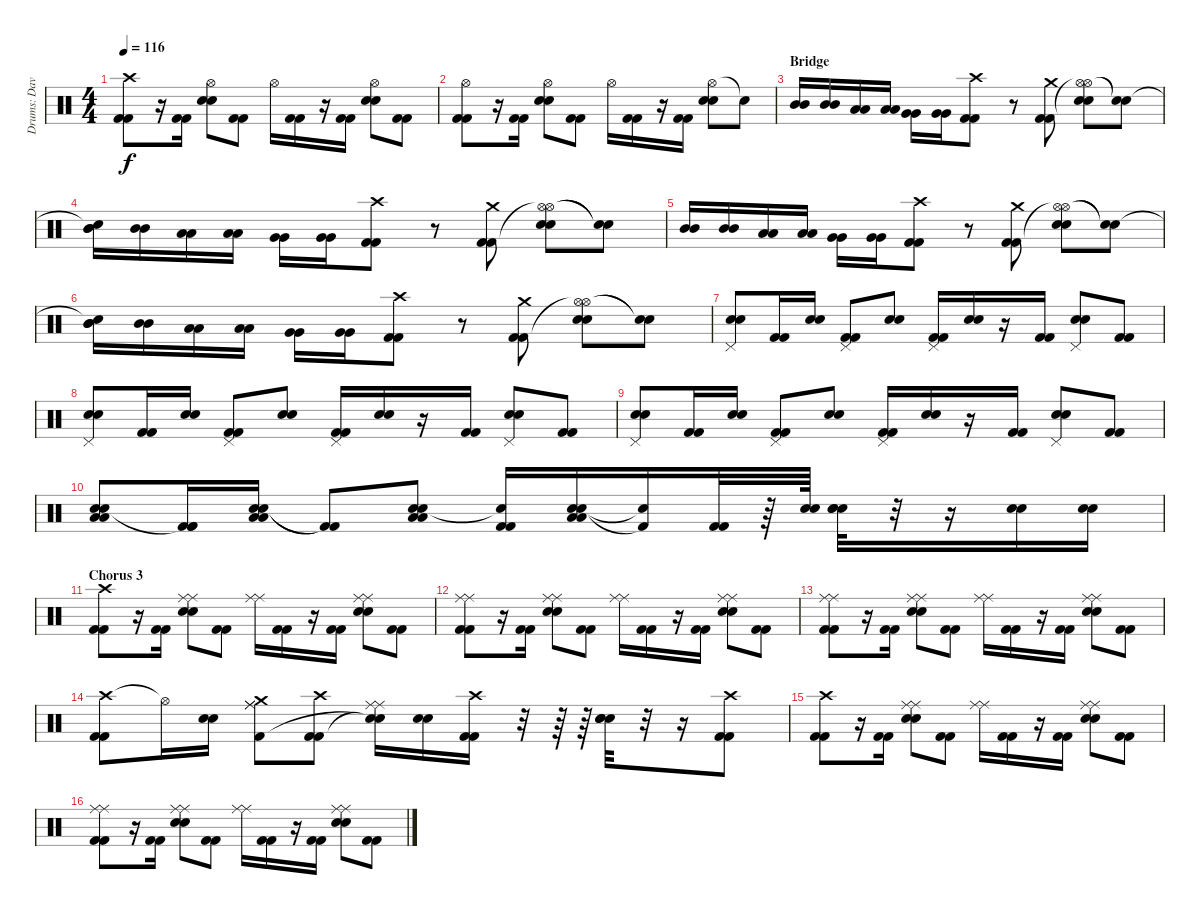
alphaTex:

\track ("Drums: Dave Krusen" "Drums: Dav") {instrument percussion}
\staff {score}
\articulation defaults
\ts (4 4)
\tempo 116
\clef neutral
\ks c
("Crash high (hit)" "Kick (hit) 2" "Kick (hit) 2").8{dy f} r.16 ("Kick (hit) 2" "Kick (hit) 2").16 ("Hi-Hat (open)" "Electric Snare (hit)" "Electric Snare (hit)").8 ("Kick (hit) 2" "Kick (hit) 2").8 "Hi-Hat (open)".16 ("Kick (hit) 2" "Kick (hit) 2").16 r.16 ("Kick (hit) 2" "Kick (hit) 2").16 ("Hi-Hat (open)" "Electric Snare (hit)" "Electric Snare (hit)").8 ("Kick (hit) 2" "Kick (hit) 2").8 |
("Hi-Hat (open)" "Kick (hit) 2" "Kick (hit) 2").8 r.16 ("Kick (hit) 2" "Kick (hit) 2").16 ("Hi-Hat (open)" "Electric Snare (hit)" "Electric Snare (hit)").8 ("Kick (hit) 2" "Kick (hit) 2").8 "Hi-Hat (open)".16 ("Kick (hit) 2" "Kick (hit) 2").16 r.16 ("Kick (hit) 2" "Kick (hit) 2").16 ("Hi-Hat (open)" "Electric Snare (hit)" "Electric Snare (hit)").8 "Snare (hit)"{t}.8 |
\section ("" "Bridge")
("Mid Tom (hit)" "Mid Tom (hit)").16 ("Mid Tom (hit)" "Mid Tom (hit)").16 ("Low Tom (hit)" "Low Tom (hit)").16 ("Low Tom (hit)" "Low Tom (hit)").16 ("Very Low Tom (hit)" "Very Low Tom (hit)").16 ("Very Low Tom (hit)" "Very Low Tom (hit)").16 ("Crash high (hit)" "Kick (hit) 2" "Kick (hit) 2").8 r.8 ("Crash medium (hit)" "Kick (hit) 2" "Kick (hit) 2").8 ("Hi-Hat (open)" "Hi-Hat (open)"{t} "Electric Snare (hit)" "Electric Snare (hit)").8 ("Snare (hit)"{t} "Snare (hit)"{t}).8 |
("Snare (hit)"{t} "Mid Tom (hit)" "Mid Tom (hit)").16 ("Mid Tom (hit)" "Mid Tom (hit)").16 ("Low Tom (hit)" "Low Tom (hit)").16 ("Low Tom (hit)" "Low Tom (hit)").16 ("Very Low Tom (hit)" "Very Low Tom (hit)").16 ("Very Low Tom (hit)" "Very Low Tom (hit)").16 ("Crash high (hit)" "Kick (hit) 2" "Kick (hit) 2").8 r.8 ("Crash medium (hit)" "Kick (hit) 2" "Kick (hit) 2").8 ("Hi-Hat (open)" "Hi-Hat (open)"{t} "Electric Snare (hit)" "Electric Snare (hit)").8 ("Snare (hit)"{t} "Snare (hit)"{t}).8 |
("Mid Tom (hit)" "Mid Tom (hit)").16 ("Mid Tom (hit)" "Mid Tom (hit)").16 ("Low Tom (hit)" "Low Tom (hit)").16 ("Low Tom (hit)" "Low Tom (hit)").16 ("Very Low Tom (hit)" "Very Low Tom (hit)").16 ("Very Low Tom (hit)" "Very Low Tom (hit)").16 ("Crash high (hit)" "Kick (hit) 2" "Kick (hit) 2").8 r.8 ("Crash medium (hit)" "Kick (hit) 2" "Kick (hit) 2").8 ("Hi-Hat (open)" "Hi-Hat (open)"{t} "Electric Snare (hit)" "Electric Snare (hit)").8 ("Snare (hit)"{t} "Snare (hit)"{t}).8 |
("Snare (hit)"{t} "Mid Tom (hit)" "Mid Tom (hit)").16 ("Mid Tom (hit)" "Mid Tom (hit)").16 ("Low Tom (hit)" "Low Tom (hit)").16 ("Low Tom (hit)" "Low Tom (hit)").16 ("Very Low Tom (hit)" "Very Low Tom (hit)").16 ("Very Low Tom (hit)" "Very Low Tom (hit)").16 ("Crash high (hit)" "Kick (hit) 2" "Kick (hit) 2").8 r.8 ("Crash medium (hit)" "Kick (hit) 2" "Kick (hit) 2").8 ("Hi-Hat (open)" "Hi-Hat (open)"{t} "Electric Snare (hit)" "Electric Snare (hit)").8 ("Snare (hit)"{t} "Snare (hit)"{t}).8 |
("Pedal Hi-Hat (hit)" "Electric Snare (hit)" "Electric Snare (hit)").8 ("Kick (hit) 2" "Kick (hit) 2").16 ("Electric Snare (hit)" "Electric Snare (hit)").16 ("Pedal Hi-Hat (hit)" "Kick (hit) 2" "Kick (hit) 2").8 ("Electric Snare (hit)" "Electric Snare (hit)").8 ("Pedal Hi-Hat (hit)" "Kick (hit) 2" "Kick (hit) 2").16 ("Electric Snare (hit)" "Electric Snare (hit)").16 r.16 ("Kick (hit) 2" "Kick (hit) 2").16 ("Pedal Hi-Hat (hit)" "Electric Snare (hit)" "Electric Snare (hit)").8 ("Kick (hit) 2" "Kick (hit) 2").8 |
("Pedal Hi-Hat (hit)" "Electric Snare (hit)" "Electric Snare (hit)").8 ("Kick (hit) 2" "Kick (hit) 2").16 ("Electric Snare (hit)" "Electric Snare (hit)").16 ("Pedal Hi-Hat (hit)" "Kick (hit) 2" "Kick (hit) 2").8 ("Electric Snare (hit)" "Electric Snare (hit)").8 ("Pedal Hi-Hat (hit)" "Kick (hit) 2" "Kick (hit) 2").16 ("Electric Snare (hit)" "Electric Snare (hit)").16 r.16 ("Kick (hit) 2" "Kick (hit) 2").16 ("Pedal Hi-Hat (hit)" "Electric Snare (hit)" "Electric Snare (hit)").8 ("Kick (hit) 2" "Kick (hit) 2").8 |
("Pedal Hi-Hat (hit)" "Electric Snare (hit)" "Electric Snare (hit)").8 ("Kick (hit) 2" "Kick (hit) 2").16 ("Electric Snare (hit)" "Electric Snare (hit)").16 ("Pedal Hi-Hat (hit)" "Kick (hit) 2" "Kick (hit) 2").8 ("Electric Snare (hit)" "Electric Snare (hit)").8 ("Pedal Hi-Hat (hit)" "Kick (hit) 2" "Kick (hit) 2").16 ("Electric Snare (hit)" "Electric Snare (hit)").16 r.16 ("Kick (hit) 2" "Kick (hit) 2").16 ("Pedal Hi-Hat (hit)" "Electric Snare (hit)" "Electric Snare (hit)").8 ("Kick (hit) 2" "Kick (hit) 2").8 |
("Electric Snare (hit)" "Electric Snare (hit)" "Low Tom (hit)" "Low Tom (hit)").8 ("Kick (hit) 2"{t} "Kick (hit) 2" "Kick (hit) 2").16 ("Electric Snare (hit)" "Electric Snare (hit)" "Low Tom (hit)" "Low Tom (hit)").16 ("Kick (hit) 2"{t} "Kick (hit) 2"{t}).8 ("Electric Snare (hit)" "Electric Snare (hit)" "Low Tom (hit)" "Low Tom (hit)").8 ("Electric Snare (hit)"{t} "Kick (hit) 2" "Kick (hit) 2").16 ("Electric Snare (hit)" "Electric Snare (hit)" "Low Tom (hit)" "Low Tom (hit)").16 ("Kick (hit) 2"{t} "Snare (hit)"{t}).16 ("Kick (hit) 2" "Kick (hit) 2").32 r.64 ("Electric Snare (hit)" "Electric Snare (hit)").64 ("Electric Snare (hit)" "Electric Snare (hit)" "Electric Snare (hit)").32 r.32 r.16 ("Electric Snare (hit)" "Electric Snare (hit)").16 ("Electric Snare (hit)" "Electric Snare (hit)").16 |
\section ("" "Chorus 3")
("Crash high (hit)" "Kick (hit) 2" "Kick (hit) 2").8 r.16 ("Kick (hit) 2" "Kick (hit) 2").16 ("Ride (middle)" "Ride (middle)" "Electric Snare (hit)" "Electric Snare (hit)").8 ("Kick (hit) 2" "Kick (hit) 2").8 ("Ride (middle)" "Ride (middle)").16 ("Kick (hit) 2" "Kick (hit) 2").16 r.16 ("Kick (hit) 2" "Kick (hit) 2").16 ("Ride (middle)" "Ride (middle)" "Electric Snare (hit)" "Electric Snare (hit)").8 ("Kick (hit) 2" "Kick (hit) 2").8 |
("Ride (middle)" "Ride (middle)" "Kick (hit) 2" "Kick (hit) 2").8 r.16 ("Kick (hit) 2" "Kick (hit) 2").16 ("Ride (middle)" "Ride (middle)" "Electric Snare (hit)" "Electric Snare (hit)").8 ("Kick (hit) 2" "Kick (hit) 2").8 ("Ride (middle)" "Ride (middle)").16 ("Kick (hit) 2" "Kick (hit) 2").16 r.16 ("Kick (hit) 2" "Kick (hit) 2").16 ("Ride (middle)" "Ride (middle)" "Electric Snare (hit)" "Electric Snare (hit)").8 ("Kick (hit) 2" "Kick (hit) 2").8 |
("Ride (middle)" "Ride (middle)" "Kick (hit) 2" "Kick (hit) 2").8 r.16 ("Kick (hit) 2" "Kick (hit) 2").16 ("Ride (middle)" "Ride (middle)" "Electric Snare (hit)" "Electric Snare (hit)").8 ("Kick (hit) 2" "Kick (hit) 2").8 ("Ride (middle)" "Ride (middle)").16 ("Kick (hit) 2" "Kick (hit) 2").16 r.16 ("Kick (hit) 2" "Kick (hit) 2").16 ("Ride (middle)" "Ride (middle)" "Electric Snare (hit)" "Electric Snare (hit)").8 ("Kick (hit) 2" "Kick (hit) 2").8 |
("Crash high (hit)" "Kick (hit) 2" "Kick (hit) 2").8 "Hi-Hat (open)"{t}.16 ("Electric Snare (hit)" "Electric Snare (hit)").16 ("Ride (middle)" "Ride (middle)" "Crash medium (hit)" "Kick (hit) 2").8 ("Crash high (hit)" "Kick (hit) 2" "Kick (hit) 2").8 ("Ride (middle)" "Ride (middle)" "Electric Snare (hit)"{t} "Snare (hit)"{t}).16 ("Electric Snare (hit)" "Electric Snare (hit)").16 ("Crash high (hit)" "Kick (hit) 2" "Kick (hit) 2").16 r.32 r.64 r.64 ("Electric Snare (hit)" "Electric Snare (hit)" "Electric Snare (hit)").32 r.32 r.16 ("Crash high (hit)" "Kick (hit) 2" "Kick (hit) 2").8 |
("Crash high (hit)" "Kick (hit) 2" "Kick (hit) 2").8 r.16 ("Kick (hit) 2" "Kick (hit) 2").16 ("Ride (middle)" "Ride (middle)" "Electric Snare (hit)" "Electric Snare (hit)").8 ("Kick (hit) 2" "Kick (hit) 2").8 ("Ride (middle)" "Ride (middle)").16 ("Kick (hit) 2" "Kick (hit) 2").16 r.16 ("Kick (hit) 2" "Kick (hit) 2").16 ("Ride (middle)" "Ride (middle)" "Electric Snare (hit)" "Electric Snare (hit)").8 ("Kick (hit) 2" "Kick (hit) 2").8 |
("Ride (middle)" "Ride (middle)" "Kick (hit) 2" "Kick (hit) 2").8 r.16 ("Kick (hit) 2" "Kick (hit) 2").16 ("Ride (middle)" "Ride (middle)" "Electric Snare (hit)" "Electric Snare (hit)").8 ("Kick (hit) 2" "Kick (hit) 2").8 ("Ride (middle)" "Ride (middle)").16 ("Kick (hit) 2" "Kick (hit) 2").16 r.16 ("Kick (hit) 2" "Kick (hit) 2").16 ("Ride (middle)" "Ride (middle)" "Electric Snare (hit)" "Electric Snare (hit)").8 ("Kick (hit) 2" "Kick (hit) 2").8
